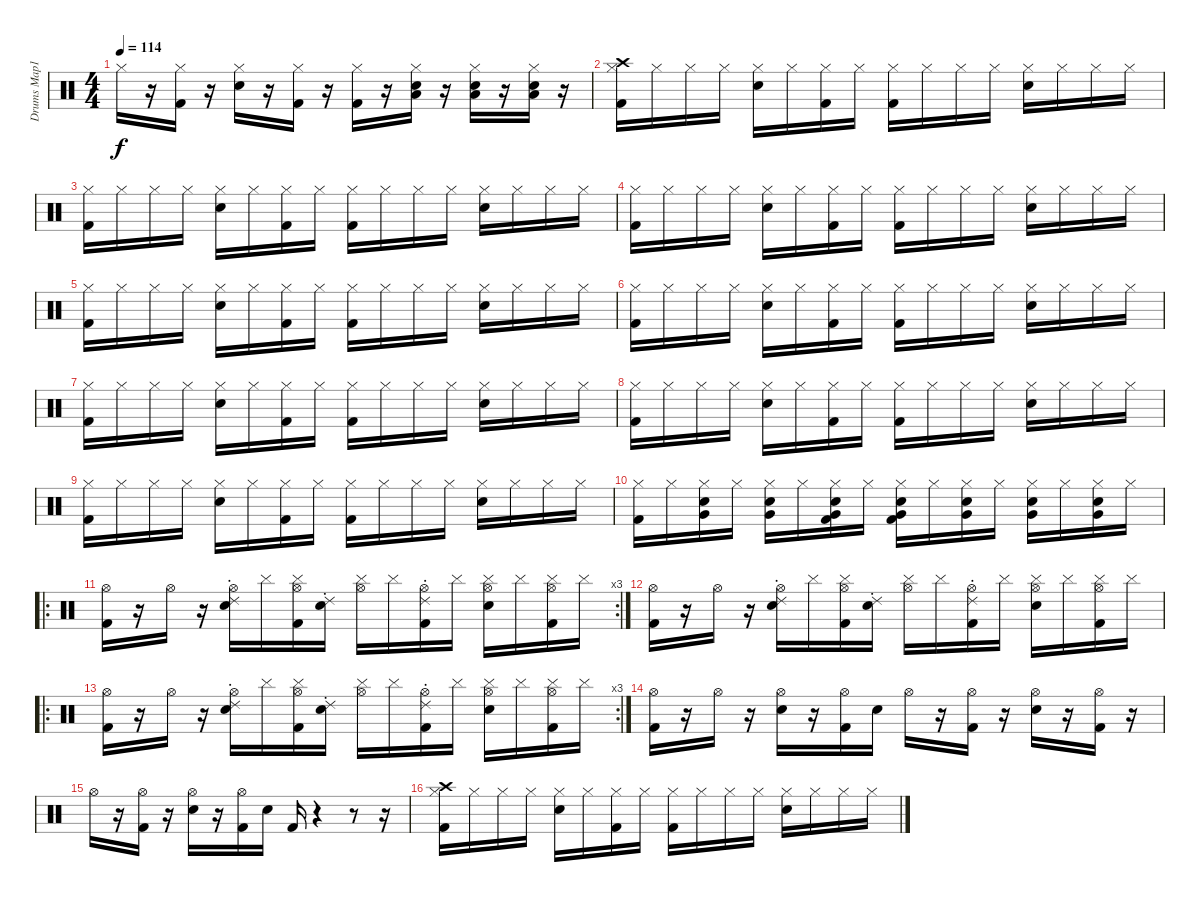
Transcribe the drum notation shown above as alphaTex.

\track ("Drums Map1" "Drums Map1") {instrument percussion}
\staff {score}
\articulation defaults
\ts (4 4)
\tempo 114
\clef neutral
\ks c "Hi-Hat (closed)".16{dy f}
r.16 ("Kick (hit) 2" "Hi-Hat (closed)").16 r.16 ("Snare (hit) 2" "Hi-Hat (closed)").16 r.16 ("Kick (hit) 2" "Hi-Hat (closed)").16 r.16 ("Kick (hit) 2" "Hi-Hat (closed)").16 r.16 ("Electric Snare (hit)" "Low Floor Tom (hit)" "Hi-Hat (closed)").16 r.16 ("Electric Snare (hit)" "Low Floor Tom (hit)" "Hi-Hat (closed)").16 r.16 ("Electric Snare (hit)" "Low Floor Tom (hit)" "Hi-Hat (closed)").16 r.16 |
("Kick (hit) 2" "Hi-Hat (closed)" "Crash high (hit)").16 "Hi-Hat (closed)".16 "Hi-Hat (closed)".16 "Hi-Hat (closed)".16 ("Snare (hit) 2" "Hi-Hat (closed)").16 "Hi-Hat (closed)".16 ("Kick (hit) 2" "Hi-Hat (closed)").16 "Hi-Hat (closed)".16 ("Kick (hit) 2" "Hi-Hat (closed)").16 "Hi-Hat (closed)".16 "Hi-Hat (closed)".16 "Hi-Hat (closed)".16 ("Snare (hit) 2" "Hi-Hat (closed)").16 "Hi-Hat (closed)".16 "Hi-Hat (closed)".16 "Hi-Hat (closed)".16 |
("Kick (hit) 2" "Hi-Hat (closed)").16 "Hi-Hat (closed)".16 "Hi-Hat (closed)".16 "Hi-Hat (closed)".16 ("Snare (hit) 2" "Hi-Hat (closed)").16 "Hi-Hat (closed)".16 ("Kick (hit) 2" "Hi-Hat (closed)").16 "Hi-Hat (closed)".16 ("Kick (hit) 2" "Hi-Hat (closed)").16 "Hi-Hat (closed)".16 "Hi-Hat (closed)".16 "Hi-Hat (closed)".16 ("Snare (hit) 2" "Hi-Hat (closed)").16 "Hi-Hat (closed)".16 "Hi-Hat (closed)".16 "Hi-Hat (closed)".16 |
("Kick (hit) 2" "Hi-Hat (closed)").16 "Hi-Hat (closed)".16 "Hi-Hat (closed)".16 "Hi-Hat (closed)".16 ("Snare (hit) 2" "Hi-Hat (closed)").16 "Hi-Hat (closed)".16 ("Kick (hit) 2" "Hi-Hat (closed)").16 "Hi-Hat (closed)".16 ("Kick (hit) 2" "Hi-Hat (closed)").16 "Hi-Hat (closed)".16 "Hi-Hat (closed)".16 "Hi-Hat (closed)".16 ("Snare (hit) 2" "Hi-Hat (closed)").16 "Hi-Hat (closed)".16 "Hi-Hat (closed)".16 "Hi-Hat (closed)".16 |
("Kick (hit) 2" "Hi-Hat (closed)").16 "Hi-Hat (closed)".16 "Hi-Hat (closed)".16 "Hi-Hat (closed)".16 ("Snare (hit) 2" "Hi-Hat (closed)").16 "Hi-Hat (closed)".16 ("Kick (hit) 2" "Hi-Hat (closed)").16 "Hi-Hat (closed)".16 ("Kick (hit) 2" "Hi-Hat (closed)").16 "Hi-Hat (closed)".16 "Hi-Hat (closed)".16 "Hi-Hat (closed)".16 ("Snare (hit) 2" "Hi-Hat (closed)").16 "Hi-Hat (closed)".16 "Hi-Hat (closed)".16 "Hi-Hat (closed)".16 |
("Kick (hit) 2" "Hi-Hat (closed)").16 "Hi-Hat (closed)".16 "Hi-Hat (closed)".16 "Hi-Hat (closed)".16 ("Snare (hit) 2" "Hi-Hat (closed)").16 "Hi-Hat (closed)".16 ("Kick (hit) 2" "Hi-Hat (closed)").16 "Hi-Hat (closed)".16 ("Kick (hit) 2" "Hi-Hat (closed)").16 "Hi-Hat (closed)".16 "Hi-Hat (closed)".16 "Hi-Hat (closed)".16 ("Snare (hit) 2" "Hi-Hat (closed)").16 "Hi-Hat (closed)".16 "Hi-Hat (closed)".16 "Hi-Hat (closed)".16 |
("Kick (hit) 2" "Hi-Hat (closed)").16 "Hi-Hat (closed)".16 "Hi-Hat (closed)".16 "Hi-Hat (closed)".16 ("Snare (hit) 2" "Hi-Hat (closed)").16 "Hi-Hat (closed)".16 ("Kick (hit) 2" "Hi-Hat (closed)").16 "Hi-Hat (closed)".16 ("Kick (hit) 2" "Hi-Hat (closed)").16 "Hi-Hat (closed)".16 "Hi-Hat (closed)".16 "Hi-Hat (closed)".16 ("Snare (hit) 2" "Hi-Hat (closed)").16 "Hi-Hat (closed)".16 "Hi-Hat (closed)".16 "Hi-Hat (closed)".16 |
("Kick (hit) 2" "Hi-Hat (closed)").16 "Hi-Hat (closed)".16 "Hi-Hat (closed)".16 "Hi-Hat (closed)".16 ("Snare (hit) 2" "Hi-Hat (closed)").16 "Hi-Hat (closed)".16 ("Kick (hit) 2" "Hi-Hat (closed)").16 "Hi-Hat (closed)".16 ("Kick (hit) 2" "Hi-Hat (closed)").16 "Hi-Hat (closed)".16 "Hi-Hat (closed)".16 "Hi-Hat (closed)".16 ("Snare (hit) 2" "Hi-Hat (closed)").16 "Hi-Hat (closed)".16 "Hi-Hat (closed)".16 "Hi-Hat (closed)".16 |
("Kick (hit) 2" "Hi-Hat (closed)").16 "Hi-Hat (closed)".16 "Hi-Hat (closed)".16 "Hi-Hat (closed)".16 ("Snare (hit) 2" "Hi-Hat (closed)").16 "Hi-Hat (closed)".16 ("Kick (hit) 2" "Hi-Hat (closed)").16 "Hi-Hat (closed)".16 ("Kick (hit) 2" "Hi-Hat (closed)").16 "Hi-Hat (closed)".16 "Hi-Hat (closed)".16 "Hi-Hat (closed)".16 ("Snare (hit) 2" "Hi-Hat (closed)").16 "Hi-Hat (closed)".16 "Hi-Hat (closed)".16 "Hi-Hat (closed)".16 |
("Kick (hit) 2" "Hi-Hat (closed)").16 "Hi-Hat (closed)".16 ("Snare (hit) 2" "Hi-Hat (closed)" "Very Low Tom (hit)").16 "Hi-Hat (closed)".16 ("Snare (hit) 2" "Hi-Hat (closed)" "Very Low Tom (hit)").16 "Hi-Hat (closed)".16 ("Kick (hit) 2" "Snare (hit) 2" "Hi-Hat (closed)" "Very Low Tom (hit)").16 "Hi-Hat (closed)".16 ("Kick (hit) 2" "Snare (hit) 2" "Hi-Hat (closed)" "Very Low Tom (hit)").16 "Hi-Hat (closed)".16 ("Snare (hit) 2" "Hi-Hat (closed)" "Very Low Tom (hit)").16 "Hi-Hat (closed)".16 ("Snare (hit) 2" "Hi-Hat (closed)" "Very Low Tom (hit)").16 "Hi-Hat (closed)".16 ("Snare (hit) 2" "Hi-Hat (closed)" "Very Low Tom (hit)").16 "Hi-Hat (closed)".16 |
\ro
\rc 3
("Kick (hit) 2" "Hi-Hat (open)").16 r.16 "Hi-Hat (open)".16 r.16 ("Ride (choke) 2" "Snare (hit) 2" "Hi-Hat (open)").16 "Cymbal (hit)".16 ("Cymbal (hit)" "Kick (hit) 2" "Hi-Hat (open)").16 ("Ride (choke) 2" "Snare (hit) 2").16 ("Cymbal (hit)" "Hi-Hat (open)").16 "Cymbal (hit)".16 ("Ride (choke) 2" "Kick (hit) 2" "Hi-Hat (open)").16 "Cymbal (hit)".16 ("Cymbal (hit)" "Snare (hit) 2" "Hi-Hat (open)").16 "Cymbal (hit)".16 ("Cymbal (hit)" "Kick (hit) 2" "Hi-Hat (open)").16 "Cymbal (hit)".16 |
("Kick (hit) 2" "Hi-Hat (open)").16 r.16 "Hi-Hat (open)".16 r.16 ("Ride (choke) 2" "Snare (hit) 2" "Hi-Hat (open)").16 "Cymbal (hit)".16 ("Cymbal (hit)" "Kick (hit) 2" "Hi-Hat (open)").16 ("Ride (choke) 2" "Snare (hit) 2").16 ("Cymbal (hit)" "Hi-Hat (open)").16 "Cymbal (hit)".16 ("Ride (choke) 2" "Kick (hit) 2" "Hi-Hat (open)").16 "Cymbal (hit)".16 ("Cymbal (hit)" "Snare (hit) 2" "Hi-Hat (open)").16 "Cymbal (hit)".16 ("Cymbal (hit)" "Kick (hit) 2" "Hi-Hat (open)").16 "Cymbal (hit)".16 |
\ro
\rc 3
("Kick (hit) 2" "Hi-Hat (open)").16 r.16 "Hi-Hat (open)".16 r.16 ("Ride (choke) 2" "Snare (hit) 2" "Hi-Hat (open)").16 "Cymbal (hit)".16 ("Cymbal (hit)" "Kick (hit) 2" "Hi-Hat (open)").16 ("Ride (choke) 2" "Snare (hit) 2").16 ("Cymbal (hit)" "Hi-Hat (open)").16 "Cymbal (hit)".16 ("Ride (choke) 2" "Kick (hit) 2" "Hi-Hat (open)").16 "Cymbal (hit)".16 ("Cymbal (hit)" "Snare (hit) 2" "Hi-Hat (open)").16 "Cymbal (hit)".16 ("Cymbal (hit)" "Kick (hit) 2" "Hi-Hat (open)").16 "Cymbal (hit)".16 |
("Kick (hit) 2" "Hi-Hat (open)").16 r.16 "Hi-Hat (open)".16 r.16 ("Snare (hit) 2" "Hi-Hat (open)").16 r.16 ("Kick (hit) 2" "Hi-Hat (open)").16 "Snare (hit) 2".16 "Hi-Hat (open)".16 r.16 ("Kick (hit) 2" "Hi-Hat (open)").16 r.16 ("Snare (hit) 2" "Hi-Hat (open)").16 r.16 ("Kick (hit) 2" "Hi-Hat (open)").16 r.16 |
"Hi-Hat (open)".16 r.16 ("Kick (hit) 2" "Hi-Hat (open)").16 r.16 ("Snare (hit) 2" "Hi-Hat (open)").16 r.16 ("Kick (hit) 2" "Hi-Hat (open)").16 "Snare (hit) 2".16 "Kick (hit) 2".16 r.4 r.8 r.16 |
("Kick (hit) 2" "Hi-Hat (closed)" "Crash high (hit)").16 "Hi-Hat (closed)".16 "Hi-Hat (closed)".16 "Hi-Hat (closed)".16 ("Snare (hit) 2" "Hi-Hat (closed)").16 "Hi-Hat (closed)".16 ("Kick (hit) 2" "Hi-Hat (closed)").16 "Hi-Hat (closed)".16 ("Kick (hit) 2" "Hi-Hat (closed)").16 "Hi-Hat (closed)".16 "Hi-Hat (closed)".16 "Hi-Hat (closed)".16 ("Snare (hit) 2" "Hi-Hat (closed)").16 "Hi-Hat (closed)".16 "Hi-Hat (closed)".16 "Hi-Hat (closed)".16
